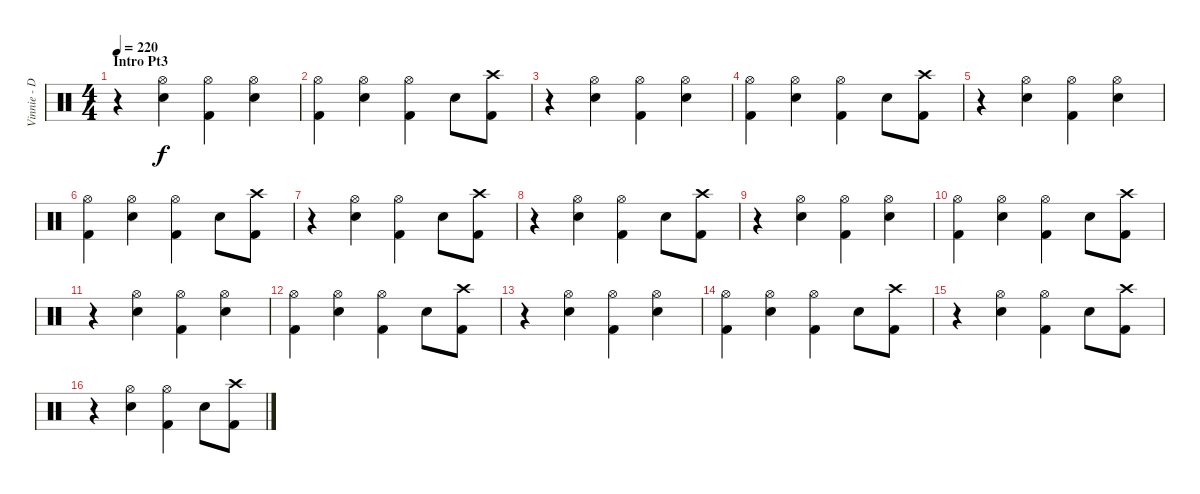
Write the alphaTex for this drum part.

\track ("Vinnie - Drums" "Vinnie - D") {instrument percussion}
\staff {score}
\articulation defaults
\ts (4 4)
\section ("" "Intro Pt3")
\tempo 220
\clef neutral
\ks c
r.4{dy f} ("Hi-Hat (open)" "Electric Snare (hit)").4 ("Hi-Hat (open)" "Kick (hit) 2").4 ("Hi-Hat (open)" "Electric Snare (hit)").4 |
("Hi-Hat (open)" "Kick (hit) 2").4 ("Hi-Hat (open)" "Electric Snare (hit)").4 ("Hi-Hat (open)" "Kick (hit) 2").4 "Electric Snare (hit)".8 ("Crash high (hit)" "Kick (hit) 2").8 |
r.4 ("Hi-Hat (open)" "Electric Snare (hit)").4 ("Hi-Hat (open)" "Kick (hit) 2").4 ("Hi-Hat (open)" "Electric Snare (hit)").4 |
("Hi-Hat (open)" "Kick (hit) 2").4 ("Hi-Hat (open)" "Electric Snare (hit)").4 ("Hi-Hat (open)" "Kick (hit) 2").4 "Electric Snare (hit)".8 ("Crash high (hit)" "Kick (hit) 2").8 |
r.4 ("Hi-Hat (open)" "Electric Snare (hit)").4 ("Hi-Hat (open)" "Kick (hit) 2").4 ("Hi-Hat (open)" "Electric Snare (hit)").4 |
("Hi-Hat (open)" "Kick (hit) 2").4 ("Hi-Hat (open)" "Electric Snare (hit)").4 ("Hi-Hat (open)" "Kick (hit) 2").4 "Electric Snare (hit)".8 ("Crash high (hit)" "Kick (hit) 2").8 |
r.4 ("Hi-Hat (open)" "Electric Snare (hit)").4 ("Hi-Hat (open)" "Kick (hit) 2").4 "Electric Snare (hit)".8 ("Crash high (hit)" "Kick (hit) 2").8 |
r.4 ("Hi-Hat (open)" "Electric Snare (hit)").4 ("Hi-Hat (open)" "Kick (hit) 2").4 "Electric Snare (hit)".8 ("Crash high (hit)" "Kick (hit) 2").8 |
r.4 ("Hi-Hat (open)" "Electric Snare (hit)").4 ("Hi-Hat (open)" "Kick (hit) 2").4 ("Hi-Hat (open)" "Electric Snare (hit)").4 |
("Hi-Hat (open)" "Kick (hit) 2").4 ("Hi-Hat (open)" "Electric Snare (hit)").4 ("Hi-Hat (open)" "Kick (hit) 2").4 "Electric Snare (hit)".8 ("Crash high (hit)" "Kick (hit) 2").8 |
r.4 ("Hi-Hat (open)" "Electric Snare (hit)").4 ("Hi-Hat (open)" "Kick (hit) 2").4 ("Hi-Hat (open)" "Electric Snare (hit)").4 |
("Hi-Hat (open)" "Kick (hit) 2").4 ("Hi-Hat (open)" "Electric Snare (hit)").4 ("Hi-Hat (open)" "Kick (hit) 2").4 "Electric Snare (hit)".8 ("Crash high (hit)" "Kick (hit) 2").8 |
r.4 ("Hi-Hat (open)" "Electric Snare (hit)").4 ("Hi-Hat (open)" "Kick (hit) 2").4 ("Hi-Hat (open)" "Electric Snare (hit)").4 |
("Hi-Hat (open)" "Kick (hit) 2").4 ("Hi-Hat (open)" "Electric Snare (hit)").4 ("Hi-Hat (open)" "Kick (hit) 2").4 "Electric Snare (hit)".8 ("Crash high (hit)" "Kick (hit) 2").8 |
r.4 ("Hi-Hat (open)" "Electric Snare (hit)").4 ("Hi-Hat (open)" "Kick (hit) 2").4 "Electric Snare (hit)".8 ("Crash high (hit)" "Kick (hit) 2").8 |
r.4 ("Hi-Hat (open)" "Electric Snare (hit)").4 ("Hi-Hat (open)" "Kick (hit) 2").4 "Electric Snare (hit)".8 ("Crash high (hit)" "Kick (hit) 2").8
